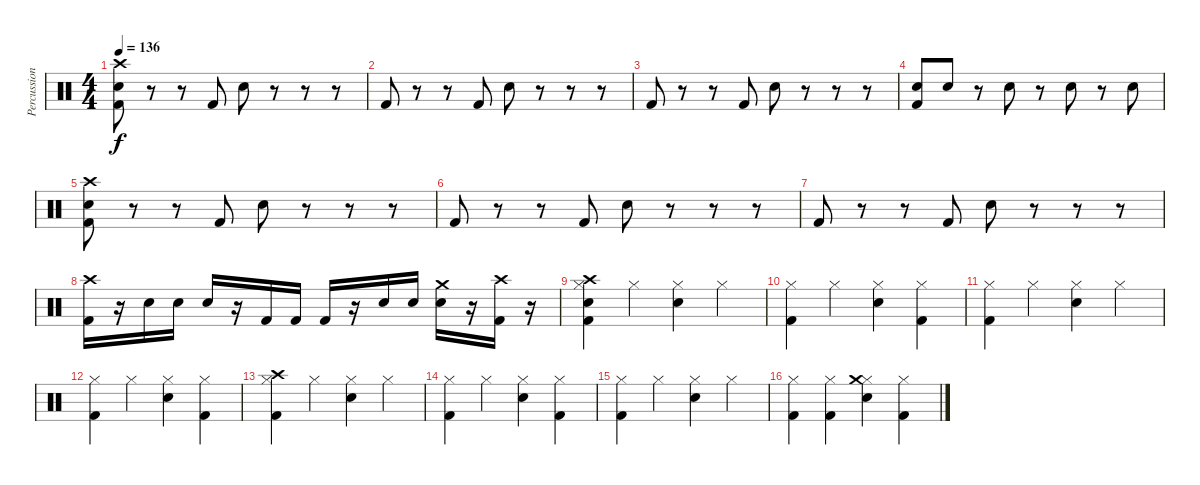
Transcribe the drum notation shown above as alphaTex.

\track ("Percussion" "Percussion") {instrument percussion}
\staff {score}
\articulation defaults
\ts (4 4)
\tempo 136
\clef neutral
\ks c
("Crash high (hit)" "Electric Snare (hit)" "Kick (hit) 2").8{dy f} r.8 r.8 "Kick (hit) 2".8 "Electric Snare (hit)".8 r.8 r.8 r.8 |
"Kick (hit) 2".8 r.8 r.8 "Kick (hit) 2".8 "Electric Snare (hit)".8 r.8 r.8 r.8 |
"Kick (hit) 2".8 r.8 r.8 "Kick (hit) 2".8 "Electric Snare (hit)".8 r.8 r.8 r.8 |
("Electric Snare (hit)" "Kick (hit) 2").8 "Electric Snare (hit)".8 r.8 "Electric Snare (hit)".8 r.8 "Electric Snare (hit)".8 r.8 "Electric Snare (hit)".8 |
("Crash high (hit)" "Electric Snare (hit)" "Kick (hit) 2").8 r.8 r.8 "Kick (hit) 2".8 "Electric Snare (hit)".8 r.8 r.8 r.8 |
"Kick (hit) 2".8 r.8 r.8 "Kick (hit) 2".8 "Electric Snare (hit)".8 r.8 r.8 r.8 |
"Kick (hit) 2".8 r.8 r.8 "Kick (hit) 2".8 "Electric Snare (hit)".8 r.8 r.8 r.8 |
("Crash high (hit)" "Kick (hit) 2").16 r.16 "Electric Snare (hit)".16 "Electric Snare (hit)".16 "Electric Snare (hit)".16 r.16 "Kick (hit) 2".16 "Kick (hit) 2".16 "Kick (hit) 2".16 r.16 "Electric Snare (hit)".16 "Electric Snare (hit)".16 ("Crash medium (hit)" "Electric Snare (hit)").16 r.16 ("Crash high (hit)" "Kick (hit) 2").16 r.16 |
("Hi-Hat (closed)" "Crash high (hit)" "Electric Snare (hit)" "Kick (hit) 2").4 "Hi-Hat (closed)".4 ("Hi-Hat (closed)" "Electric Snare (hit)").4 "Hi-Hat (closed)".4 |
("Hi-Hat (closed)" "Kick (hit) 2").4 "Hi-Hat (closed)".4 ("Hi-Hat (closed)" "Electric Snare (hit)").4 ("Hi-Hat (closed)" "Kick (hit) 2").4 |
("Hi-Hat (closed)" "Kick (hit) 2").4 "Hi-Hat (closed)".4 ("Hi-Hat (closed)" "Electric Snare (hit)").4 "Hi-Hat (closed)".4 |
("Hi-Hat (closed)" "Kick (hit) 2").4 "Hi-Hat (closed)".4 ("Hi-Hat (closed)" "Electric Snare (hit)").4 ("Hi-Hat (closed)" "Kick (hit) 2").4 |
("Hi-Hat (closed)" "Crash high (hit)" "Kick (hit) 2").4 "Hi-Hat (closed)".4 ("Hi-Hat (closed)" "Electric Snare (hit)").4 "Hi-Hat (closed)".4 |
("Hi-Hat (closed)" "Kick (hit) 2").4 "Hi-Hat (closed)".4 ("Hi-Hat (closed)" "Electric Snare (hit)").4 ("Hi-Hat (closed)" "Kick (hit) 2").4 |
("Hi-Hat (closed)" "Kick (hit) 2").4 "Hi-Hat (closed)".4 ("Hi-Hat (closed)" "Electric Snare (hit)").4 "Hi-Hat (closed)".4 |
("Hi-Hat (closed)" "Kick (hit) 2").4 ("Hi-Hat (closed)" "Kick (hit) 2").4 ("Hi-Hat (closed)" "Crash medium (hit)" "Electric Snare (hit)").4 ("Hi-Hat (closed)" "Kick (hit) 2").4
